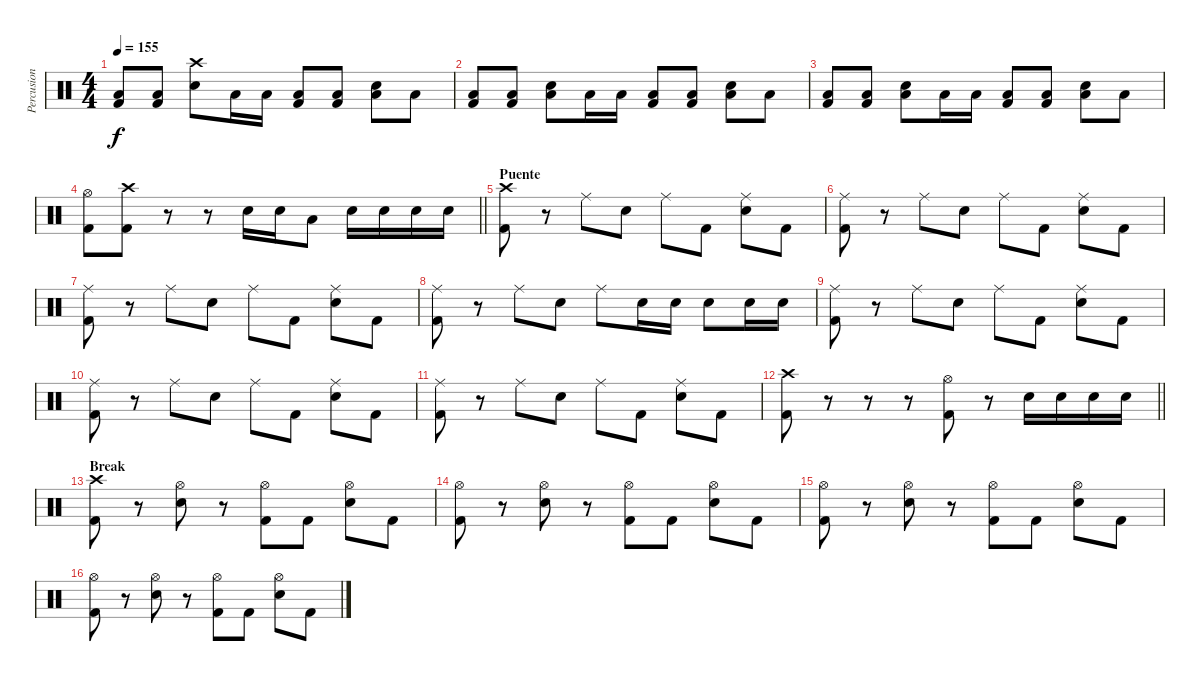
\track ("Percusion" "Percusion") {instrument percussion}
\staff {score}
\articulation defaults
\ts (4 4)
\tempo 155
\clef neutral
\ks c
("Low Floor Tom (hit)" "Kick (hit) 2").8{dy f} ("Low Floor Tom (hit)" "Kick (hit) 2").8 ("Crash high (hit)" "Electric Snare (hit)").8 "Low Floor Tom (hit)".16 "Low Floor Tom (hit)".16 ("Low Floor Tom (hit)" "Kick (hit) 2").8 ("Low Floor Tom (hit)" "Kick (hit) 2").8 ("Low Floor Tom (hit)" "Electric Snare (hit)").8 "Low Floor Tom (hit)".8 |
("Low Floor Tom (hit)" "Kick (hit) 2").8 ("Low Floor Tom (hit)" "Kick (hit) 2").8 ("Low Floor Tom (hit)" "Electric Snare (hit)").8 "Low Floor Tom (hit)".16 "Low Floor Tom (hit)".16 ("Low Floor Tom (hit)" "Kick (hit) 2").8 ("Low Floor Tom (hit)" "Kick (hit) 2").8 ("Low Floor Tom (hit)" "Electric Snare (hit)").8 "Low Floor Tom (hit)".8 |
("Low Floor Tom (hit)" "Kick (hit) 2").8 ("Low Floor Tom (hit)" "Kick (hit) 2").8 ("Low Floor Tom (hit)" "Electric Snare (hit)").8 "Low Floor Tom (hit)".16 "Low Floor Tom (hit)".16 ("Low Floor Tom (hit)" "Kick (hit) 2").8 ("Low Floor Tom (hit)" "Kick (hit) 2").8 ("Low Floor Tom (hit)" "Electric Snare (hit)").8 "Low Floor Tom (hit)".8 |
\barLineRight lightlight
("Hi-Hat (open)" "Kick (hit) 2").8 ("Crash high (hit)" "Kick (hit) 2").8 r.8 r.8 "Electric Snare (hit)".16 "Electric Snare (hit)".16 "Low Tom (hit)".8 "Electric Snare (hit)".16 "Electric Snare (hit)".16 "Electric Snare (hit)".16 "Electric Snare (hit)".16 |
\section ("" "Puente")
("Crash high (hit)" "Kick (hit) 2").8 r.8 "Ride (middle)".8 "Electric Snare (hit)".8 "Ride (middle)".8 "Kick (hit) 2".8 ("Ride (middle)" "Electric Snare (hit)").8 "Kick (hit) 2".8 |
("Ride (middle)" "Kick (hit) 2").8 r.8 "Ride (middle)".8 "Electric Snare (hit)".8 "Ride (middle)".8 "Kick (hit) 2".8 ("Ride (middle)" "Electric Snare (hit)").8 "Kick (hit) 2".8 |
("Ride (middle)" "Kick (hit) 2").8 r.8 "Ride (middle)".8 "Electric Snare (hit)".8 "Ride (middle)".8 "Kick (hit) 2".8 ("Ride (middle)" "Electric Snare (hit)").8 "Kick (hit) 2".8 |
("Ride (middle)" "Kick (hit) 2").8 r.8 "Ride (middle)".8 "Electric Snare (hit)".8 "Ride (middle)".8 "Electric Snare (hit)".16 "Electric Snare (hit)".16 "Electric Snare (hit)".8 "Electric Snare (hit)".16 "Electric Snare (hit)".16 |
("Ride (middle)" "Kick (hit) 2").8 r.8 "Ride (middle)".8 "Electric Snare (hit)".8 "Ride (middle)".8 "Kick (hit) 2".8 ("Ride (middle)" "Electric Snare (hit)").8 "Kick (hit) 2".8 |
("Ride (middle)" "Kick (hit) 2").8 r.8 "Ride (middle)".8 "Electric Snare (hit)".8 "Ride (middle)".8 "Kick (hit) 2".8 ("Ride (middle)" "Electric Snare (hit)").8 "Kick (hit) 2".8 |
("Ride (middle)" "Kick (hit) 2").8 r.8 "Ride (middle)".8 "Electric Snare (hit)".8 "Ride (middle)".8 "Kick (hit) 2".8 ("Ride (middle)" "Electric Snare (hit)").8 "Kick (hit) 2".8 |
\barLineRight lightlight
("Crash high (hit)" "Kick (hit) 2").8 r.8 r.8 r.8 ("Hi-Hat (open)" "Kick (hit) 2").8 r.8 "Electric Snare (hit)".16 "Electric Snare (hit)".16 "Electric Snare (hit)".16 "Electric Snare (hit)".16 |
\section ("" "Break")
("Crash high (hit)" "Kick (hit) 2").8 r.8 ("Hi-Hat (open)" "Electric Snare (hit)").8 r.8 ("Hi-Hat (open)" "Kick (hit) 2").8 "Kick (hit) 2".8 ("Hi-Hat (open)" "Electric Snare (hit)").8 "Kick (hit) 2".8 |
("Hi-Hat (open)" "Kick (hit) 2").8 r.8 ("Hi-Hat (open)" "Electric Snare (hit)").8 r.8 ("Hi-Hat (open)" "Kick (hit) 2").8 "Kick (hit) 2".8 ("Hi-Hat (open)" "Electric Snare (hit)").8 "Kick (hit) 2".8 |
("Hi-Hat (open)" "Kick (hit) 2").8 r.8 ("Hi-Hat (open)" "Electric Snare (hit)").8 r.8 ("Hi-Hat (open)" "Kick (hit) 2").8 "Kick (hit) 2".8 ("Hi-Hat (open)" "Electric Snare (hit)").8 "Kick (hit) 2".8 |
("Hi-Hat (open)" "Kick (hit) 2").8 r.8 ("Hi-Hat (open)" "Electric Snare (hit)").8 r.8 ("Hi-Hat (open)" "Kick (hit) 2").8 "Kick (hit) 2".8 ("Hi-Hat (open)" "Electric Snare (hit)").8 "Kick (hit) 2".8
